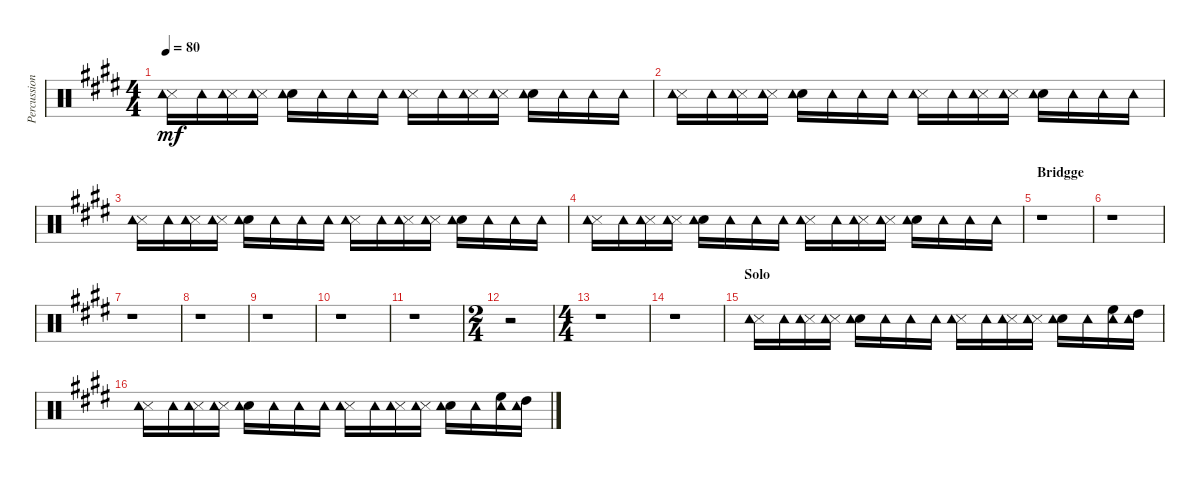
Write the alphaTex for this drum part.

\track ("Percussion" "Percussion") {instrument percussion}
\staff {score}
\articulation defaults
\ts (4 4)
\tempo 80
\clef neutral
\ks c#minor
("Metronome (hit)" "Tambourine (hit)").16{dy mf} "Tambourine (hit)".16 ("Metronome (hit)" "Tambourine (hit)").16 ("Metronome (hit)" "Tambourine (hit)").16 ("Snare (hit) 2" "Tambourine (hit)").16 "Tambourine (hit)".16 "Tambourine (hit)".16 "Tambourine (hit)".16 ("Metronome (hit)" "Tambourine (hit)").16 "Tambourine (hit)".16 ("Metronome (hit)" "Tambourine (hit)").16 ("Metronome (hit)" "Tambourine (hit)").16 ("Snare (hit) 2" "Tambourine (hit)").16 "Tambourine (hit)".16 "Tambourine (hit)".16 "Tambourine (hit)".16 |
("Metronome (hit)" "Tambourine (hit)").16 "Tambourine (hit)".16 ("Metronome (hit)" "Tambourine (hit)").16 ("Metronome (hit)" "Tambourine (hit)").16 ("Snare (hit) 2" "Tambourine (hit)").16 "Tambourine (hit)".16 "Tambourine (hit)".16 "Tambourine (hit)".16 ("Metronome (hit)" "Tambourine (hit)").16 "Tambourine (hit)".16 ("Metronome (hit)" "Tambourine (hit)").16 ("Metronome (hit)" "Tambourine (hit)").16 ("Snare (hit) 2" "Tambourine (hit)").16 "Tambourine (hit)".16 "Tambourine (hit)".16 "Tambourine (hit)".16 |
("Metronome (hit)" "Tambourine (hit)").16 "Tambourine (hit)".16 ("Metronome (hit)" "Tambourine (hit)").16 ("Metronome (hit)" "Tambourine (hit)").16 ("Snare (hit) 2" "Tambourine (hit)").16 "Tambourine (hit)".16 "Tambourine (hit)".16 "Tambourine (hit)".16 ("Metronome (hit)" "Tambourine (hit)").16 "Tambourine (hit)".16 ("Metronome (hit)" "Tambourine (hit)").16 ("Metronome (hit)" "Tambourine (hit)").16 ("Snare (hit) 2" "Tambourine (hit)").16 "Tambourine (hit)".16 "Tambourine (hit)".16 "Tambourine (hit)".16 |
("Metronome (hit)" "Tambourine (hit)").16 "Tambourine (hit)".16 ("Metronome (hit)" "Tambourine (hit)").16 ("Metronome (hit)" "Tambourine (hit)").16 ("Snare (hit) 2" "Tambourine (hit)").16 "Tambourine (hit)".16 "Tambourine (hit)".16 "Tambourine (hit)".16 ("Metronome (hit)" "Tambourine (hit)").16 "Tambourine (hit)".16 ("Metronome (hit)" "Tambourine (hit)").16 ("Metronome (hit)" "Tambourine (hit)").16 ("Snare (hit) 2" "Tambourine (hit)").16 "Tambourine (hit)".16 "Tambourine (hit)".16 "Tambourine (hit)".16 |
\section ("" "Bridgge")
r.1 |
r.1 |
r.1 |
r.1 |
r.1 |
r.1 |
r.1 |
\ts (2 4)
r.2 |
\ts (4 4)
r.1 |
r.1 |
\section ("" "Solo")
("Metronome (hit)" "Tambourine (hit)").16 "Tambourine (hit)".16 ("Metronome (hit)" "Tambourine (hit)").16 ("Metronome (hit)" "Tambourine (hit)").16 ("Snare (hit) 2" "Tambourine (hit)").16 "Tambourine (hit)".16 "Tambourine (hit)".16 "Tambourine (hit)".16 ("Metronome (hit)" "Tambourine (hit)").16 "Tambourine (hit)".16 ("Metronome (hit)" "Tambourine (hit)").16 ("Metronome (hit)" "Tambourine (hit)").16 ("Snare (hit) 2" "Tambourine (hit)").16 "Tambourine (hit)".16 ("High Floor Tom (hit)" "Tambourine (hit)").16 ("High Tom (hit)" "Tambourine (hit)").16 |
("Metronome (hit)" "Tambourine (hit)").16 "Tambourine (hit)".16 ("Metronome (hit)" "Tambourine (hit)").16 ("Metronome (hit)" "Tambourine (hit)").16 ("Snare (hit) 2" "Tambourine (hit)").16 "Tambourine (hit)".16 "Tambourine (hit)".16 "Tambourine (hit)".16 ("Metronome (hit)" "Tambourine (hit)").16 "Tambourine (hit)".16 ("Metronome (hit)" "Tambourine (hit)").16 ("Metronome (hit)" "Tambourine (hit)").16 ("Snare (hit) 2" "Tambourine (hit)").16 "Tambourine (hit)".16 ("High Floor Tom (hit)" "Tambourine (hit)").16 ("High Tom (hit)" "Tambourine (hit)").16
